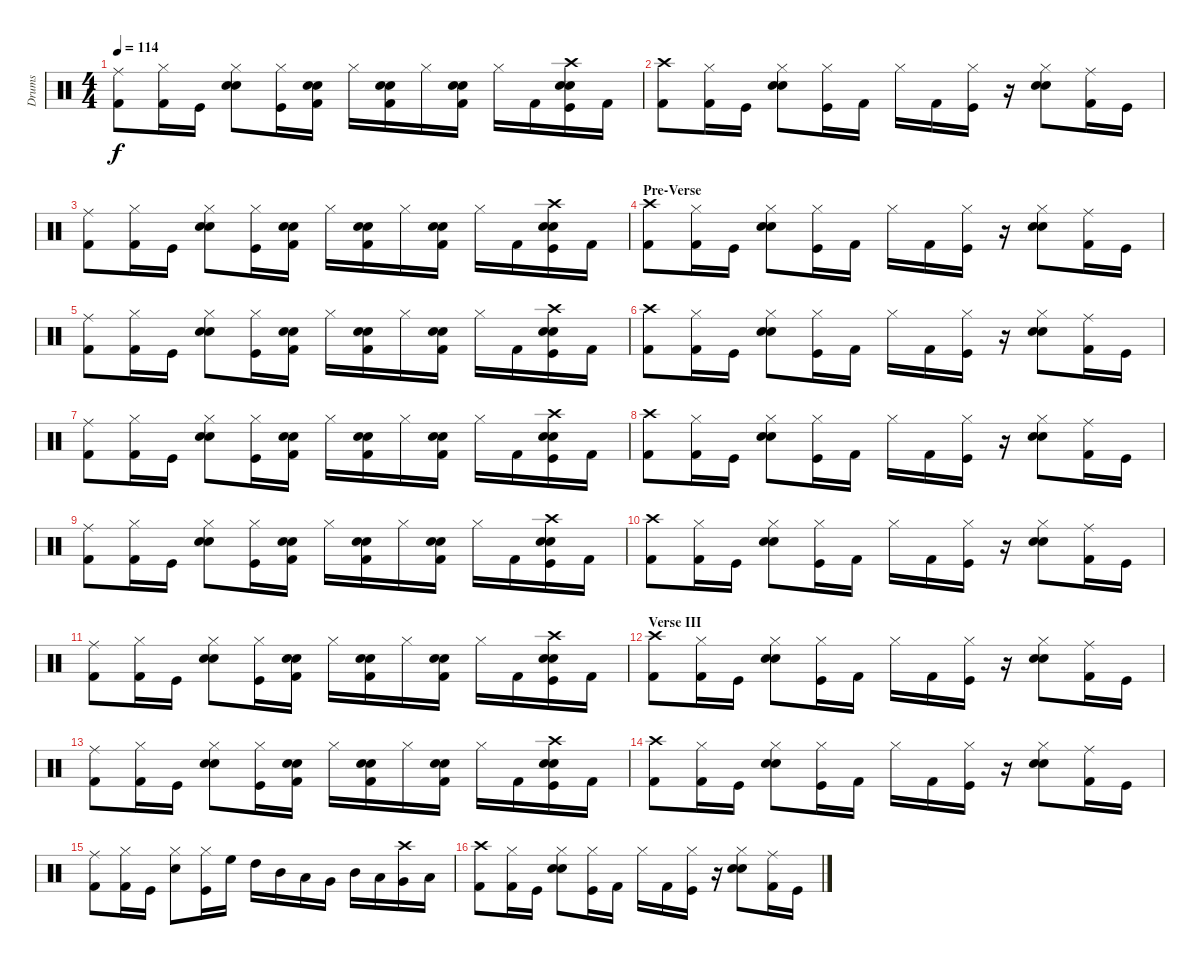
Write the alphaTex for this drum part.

\track ("Drums" "Drums") {instrument percussion}
\staff {score}
\articulation defaults
\ts (4 4)
\tempo 114
\clef neutral
\ks c
("Ride (middle)" "Kick (hit) 2").8{dy f} ("Hi-Hat (closed)" "Kick (hit) 2").16 "Kick (hit)".16 ("Hi-Hat (closed)" "Electric Snare (hit)" "Snare (hit) 2").8 ("Hi-Hat (closed)" "Kick (hit)").16 ("Electric Snare (hit)" "Snare (hit) 2" "Kick (hit) 2").16 "Hi-Hat (closed)".16 ("Electric Snare (hit)" "Snare (hit) 2" "Kick (hit) 2").16 "Hi-Hat (closed)".16 ("Electric Snare (hit)" "Snare (hit) 2" "Kick (hit) 2").16 "Hi-Hat (closed)".16 "Kick (hit) 2".16 ("Crash high (hit)" "Electric Snare (hit)" "Snare (hit) 2" "Kick (hit)").16 "Kick (hit) 2".16 |
("Crash high (hit)" "Kick (hit) 2").8 ("Hi-Hat (closed)" "Kick (hit) 2").16 "Kick (hit)".16 ("Hi-Hat (closed)" "Electric Snare (hit)" "Snare (hit) 2").8 ("Hi-Hat (closed)" "Kick (hit)").16 "Kick (hit) 2".16 "Hi-Hat (closed)".16 "Kick (hit) 2".16 ("Hi-Hat (closed)" "Kick (hit)").16 r.16 ("Hi-Hat (closed)" "Electric Snare (hit)" "Snare (hit) 2").8 ("Ride (middle)" "Kick (hit) 2").16 "Kick (hit)".16 |
("Ride (middle)" "Kick (hit) 2").8 ("Hi-Hat (closed)" "Kick (hit) 2").16 "Kick (hit)".16 ("Hi-Hat (closed)" "Electric Snare (hit)" "Snare (hit) 2").8 ("Hi-Hat (closed)" "Kick (hit)").16 ("Electric Snare (hit)" "Snare (hit) 2" "Kick (hit) 2").16 "Hi-Hat (closed)".16 ("Electric Snare (hit)" "Snare (hit) 2" "Kick (hit) 2").16 "Hi-Hat (closed)".16 ("Electric Snare (hit)" "Snare (hit) 2" "Kick (hit) 2").16 "Hi-Hat (closed)".16 "Kick (hit) 2".16 ("Crash high (hit)" "Electric Snare (hit)" "Snare (hit) 2" "Kick (hit)").16 "Kick (hit) 2".16 |
\section ("" "Pre-Verse")
("Crash high (hit)" "Kick (hit) 2").8 ("Hi-Hat (closed)" "Kick (hit) 2").16 "Kick (hit)".16 ("Hi-Hat (closed)" "Electric Snare (hit)" "Snare (hit) 2").8 ("Hi-Hat (closed)" "Kick (hit)").16 "Kick (hit) 2".16 "Hi-Hat (closed)".16 "Kick (hit) 2".16 ("Hi-Hat (closed)" "Kick (hit)").16 r.16 ("Hi-Hat (closed)" "Electric Snare (hit)" "Snare (hit) 2").8 ("Ride (middle)" "Kick (hit) 2").16 "Kick (hit)".16 |
("Ride (middle)" "Kick (hit) 2").8 ("Hi-Hat (closed)" "Kick (hit) 2").16 "Kick (hit)".16 ("Hi-Hat (closed)" "Electric Snare (hit)" "Snare (hit) 2").8 ("Hi-Hat (closed)" "Kick (hit)").16 ("Electric Snare (hit)" "Snare (hit) 2" "Kick (hit) 2").16 "Hi-Hat (closed)".16 ("Electric Snare (hit)" "Snare (hit) 2" "Kick (hit) 2").16 "Hi-Hat (closed)".16 ("Electric Snare (hit)" "Snare (hit) 2" "Kick (hit) 2").16 "Hi-Hat (closed)".16 "Kick (hit) 2".16 ("Crash high (hit)" "Electric Snare (hit)" "Snare (hit) 2" "Kick (hit)").16 "Kick (hit) 2".16 |
("Crash high (hit)" "Kick (hit) 2").8 ("Hi-Hat (closed)" "Kick (hit) 2").16 "Kick (hit)".16 ("Hi-Hat (closed)" "Electric Snare (hit)" "Snare (hit) 2").8 ("Hi-Hat (closed)" "Kick (hit)").16 "Kick (hit) 2".16 "Hi-Hat (closed)".16 "Kick (hit) 2".16 ("Hi-Hat (closed)" "Kick (hit)").16 r.16 ("Hi-Hat (closed)" "Electric Snare (hit)" "Snare (hit) 2").8 ("Ride (middle)" "Kick (hit) 2").16 "Kick (hit)".16 |
("Ride (middle)" "Kick (hit) 2").8 ("Hi-Hat (closed)" "Kick (hit) 2").16 "Kick (hit)".16 ("Hi-Hat (closed)" "Electric Snare (hit)" "Snare (hit) 2").8 ("Hi-Hat (closed)" "Kick (hit)").16 ("Electric Snare (hit)" "Snare (hit) 2" "Kick (hit) 2").16 "Hi-Hat (closed)".16 ("Electric Snare (hit)" "Snare (hit) 2" "Kick (hit) 2").16 "Hi-Hat (closed)".16 ("Electric Snare (hit)" "Snare (hit) 2" "Kick (hit) 2").16 "Hi-Hat (closed)".16 "Kick (hit) 2".16 ("Crash high (hit)" "Electric Snare (hit)" "Snare (hit) 2" "Kick (hit)").16 "Kick (hit) 2".16 |
("Crash high (hit)" "Kick (hit) 2").8 ("Hi-Hat (closed)" "Kick (hit) 2").16 "Kick (hit)".16 ("Hi-Hat (closed)" "Electric Snare (hit)" "Snare (hit) 2").8 ("Hi-Hat (closed)" "Kick (hit)").16 "Kick (hit) 2".16 "Hi-Hat (closed)".16 "Kick (hit) 2".16 ("Hi-Hat (closed)" "Kick (hit)").16 r.16 ("Hi-Hat (closed)" "Electric Snare (hit)" "Snare (hit) 2").8 ("Ride (middle)" "Kick (hit) 2").16 "Kick (hit)".16 |
("Ride (middle)" "Kick (hit) 2").8 ("Hi-Hat (closed)" "Kick (hit) 2").16 "Kick (hit)".16 ("Hi-Hat (closed)" "Electric Snare (hit)" "Snare (hit) 2").8 ("Hi-Hat (closed)" "Kick (hit)").16 ("Electric Snare (hit)" "Snare (hit) 2" "Kick (hit) 2").16 "Hi-Hat (closed)".16 ("Electric Snare (hit)" "Snare (hit) 2" "Kick (hit) 2").16 "Hi-Hat (closed)".16 ("Electric Snare (hit)" "Snare (hit) 2" "Kick (hit) 2").16 "Hi-Hat (closed)".16 "Kick (hit) 2".16 ("Crash high (hit)" "Electric Snare (hit)" "Snare (hit) 2" "Kick (hit)").16 "Kick (hit) 2".16 |
("Crash high (hit)" "Kick (hit) 2").8 ("Hi-Hat (closed)" "Kick (hit) 2").16 "Kick (hit)".16 ("Hi-Hat (closed)" "Electric Snare (hit)" "Snare (hit) 2").8 ("Hi-Hat (closed)" "Kick (hit)").16 "Kick (hit) 2".16 "Hi-Hat (closed)".16 "Kick (hit) 2".16 ("Hi-Hat (closed)" "Kick (hit)").16 r.16 ("Hi-Hat (closed)" "Electric Snare (hit)" "Snare (hit) 2").8 ("Ride (middle)" "Kick (hit) 2").16 "Kick (hit)".16 |
("Ride (middle)" "Kick (hit) 2").8 ("Hi-Hat (closed)" "Kick (hit) 2").16 "Kick (hit)".16 ("Hi-Hat (closed)" "Electric Snare (hit)" "Snare (hit) 2").8 ("Hi-Hat (closed)" "Kick (hit)").16 ("Electric Snare (hit)" "Snare (hit) 2" "Kick (hit) 2").16 "Hi-Hat (closed)".16 ("Electric Snare (hit)" "Snare (hit) 2" "Kick (hit) 2").16 "Hi-Hat (closed)".16 ("Electric Snare (hit)" "Snare (hit) 2" "Kick (hit) 2").16 "Hi-Hat (closed)".16 "Kick (hit) 2".16 ("Crash high (hit)" "Electric Snare (hit)" "Snare (hit) 2" "Kick (hit)").16 "Kick (hit) 2".16 |
\section ("" "Verse III")
("Crash high (hit)" "Kick (hit) 2").8 ("Hi-Hat (closed)" "Kick (hit) 2").16 "Kick (hit)".16 ("Hi-Hat (closed)" "Electric Snare (hit)" "Snare (hit) 2").8 ("Hi-Hat (closed)" "Kick (hit)").16 "Kick (hit) 2".16 "Hi-Hat (closed)".16 "Kick (hit) 2".16 ("Hi-Hat (closed)" "Kick (hit)").16 r.16 ("Hi-Hat (closed)" "Electric Snare (hit)" "Snare (hit) 2").8 ("Ride (middle)" "Kick (hit) 2").16 "Kick (hit)".16 |
("Ride (middle)" "Kick (hit) 2").8 ("Hi-Hat (closed)" "Kick (hit) 2").16 "Kick (hit)".16 ("Hi-Hat (closed)" "Electric Snare (hit)" "Snare (hit) 2").8 ("Hi-Hat (closed)" "Kick (hit)").16 ("Electric Snare (hit)" "Snare (hit) 2" "Kick (hit) 2").16 "Hi-Hat (closed)".16 ("Electric Snare (hit)" "Snare (hit) 2" "Kick (hit) 2").16 "Hi-Hat (closed)".16 ("Electric Snare (hit)" "Snare (hit) 2" "Kick (hit) 2").16 "Hi-Hat (closed)".16 "Kick (hit) 2".16 ("Crash high (hit)" "Electric Snare (hit)" "Snare (hit) 2" "Kick (hit)").16 "Kick (hit) 2".16 |
("Crash high (hit)" "Kick (hit) 2").8 ("Hi-Hat (closed)" "Kick (hit) 2").16 "Kick (hit)".16 ("Hi-Hat (closed)" "Electric Snare (hit)" "Snare (hit) 2").8 ("Hi-Hat (closed)" "Kick (hit)").16 "Kick (hit) 2".16 "Hi-Hat (closed)".16 "Kick (hit) 2".16 ("Hi-Hat (closed)" "Kick (hit)").16 r.16 ("Hi-Hat (closed)" "Electric Snare (hit)" "Snare (hit) 2").8 ("Ride (middle)" "Kick (hit) 2").16 "Kick (hit)".16 |
("Ride (middle)" "Kick (hit) 2").8 ("Hi-Hat (closed)" "Kick (hit) 2").16 "Kick (hit)".16 ("Hi-Hat (closed)" "Snare (hit) 2").8 ("Hi-Hat (closed)" "Kick (hit)").16 "High Floor Tom (hit)".16 "High Tom (hit)".16 "Mid Tom (hit)".16 "Low Tom (hit)".16 "Very Low Tom (hit)".16 "Mid Tom (hit)".16 "Low Tom (hit)".16 ("Crash high (hit)" "Very Low Tom (hit)").16 "Low Floor Tom (hit)".16 |
("Crash high (hit)" "Kick (hit) 2").8 ("Hi-Hat (closed)" "Kick (hit) 2").16 "Kick (hit)".16 ("Hi-Hat (closed)" "Electric Snare (hit)" "Snare (hit) 2").8 ("Hi-Hat (closed)" "Kick (hit)").16 "Kick (hit) 2".16 "Hi-Hat (closed)".16 "Kick (hit) 2".16 ("Hi-Hat (closed)" "Kick (hit)").16 r.16 ("Hi-Hat (closed)" "Electric Snare (hit)" "Snare (hit) 2").8 ("Ride (middle)" "Kick (hit) 2").16 "Kick (hit)".16
